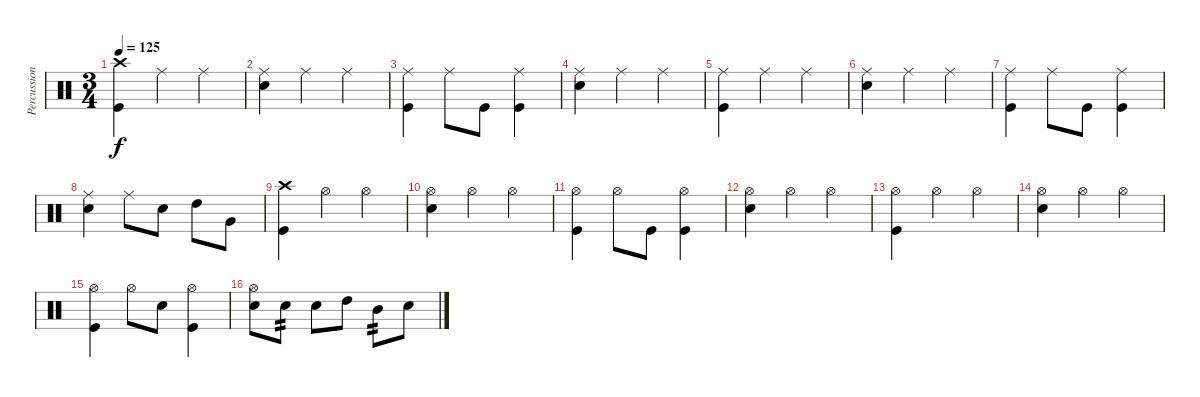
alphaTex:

\track ("Percussion" "Percussion") {instrument percussion}
\staff {score}
\articulation defaults
\ts (3 4)
\tempo 125
\clef neutral
\ks c
("Crash high (hit)" "Kick (hit)").4{dy f} "Ride (middle)".4 "Ride (middle)".4 |
("Ride (middle)" "Snare (hit) 2").4 "Ride (middle)".4 "Ride (middle)".4 |
("Ride (middle)" "Kick (hit)").4 "Ride (middle)".8 "Kick (hit)".8 ("Ride (middle)" "Kick (hit)").4 |
("Ride (middle)" "Snare (hit) 2").4 "Ride (middle)".4 "Ride (middle)".4 |
("Ride (middle)" "Kick (hit)").4 "Ride (middle)".4 "Ride (middle)".4 |
("Ride (middle)" "Snare (hit) 2").4 "Ride (middle)".4 "Ride (middle)".4 |
("Ride (middle)" "Kick (hit)").4 "Ride (middle)".8 "Kick (hit)".8 ("Ride (middle)" "Kick (hit)").4 |
("Ride (middle)" "Snare (hit) 2").4 "Ride (middle)".8 "Snare (hit) 2".8 "High Tom (hit)".8 "Very Low Tom (hit)".8 |
("Crash high (hit)" "Kick (hit)").4 "Hi-Hat (open)".4 "Hi-Hat (open)".4 |
("Hi-Hat (open)" "Snare (hit) 2").4 "Hi-Hat (open)".4 "Hi-Hat (open)".4 |
("Hi-Hat (open)" "Kick (hit)").4 "Hi-Hat (open)".8 "Kick (hit)".8 ("Hi-Hat (open)" "Kick (hit)").4 |
("Hi-Hat (open)" "Snare (hit) 2").4 "Hi-Hat (open)".4 "Hi-Hat (open)".4 |
("Hi-Hat (open)" "Kick (hit)").4 "Hi-Hat (open)".4 "Hi-Hat (open)".4 |
("Hi-Hat (open)" "Snare (hit) 2").4 "Hi-Hat (open)".4 "Hi-Hat (open)".4 |
("Hi-Hat (open)" "Kick (hit)").4 "Hi-Hat (open)".8 "Snare (hit) 2".8 ("Hi-Hat (open)" "Kick (hit)").4 |
("Hi-Hat (open)" "Snare (hit) 2").8 "Snare (hit) 2".8{tp 2} "Snare (hit) 2".8 "High Tom (hit)".8 "Mid Tom (hit)".8{tp 2} "Snare (hit) 2".8
